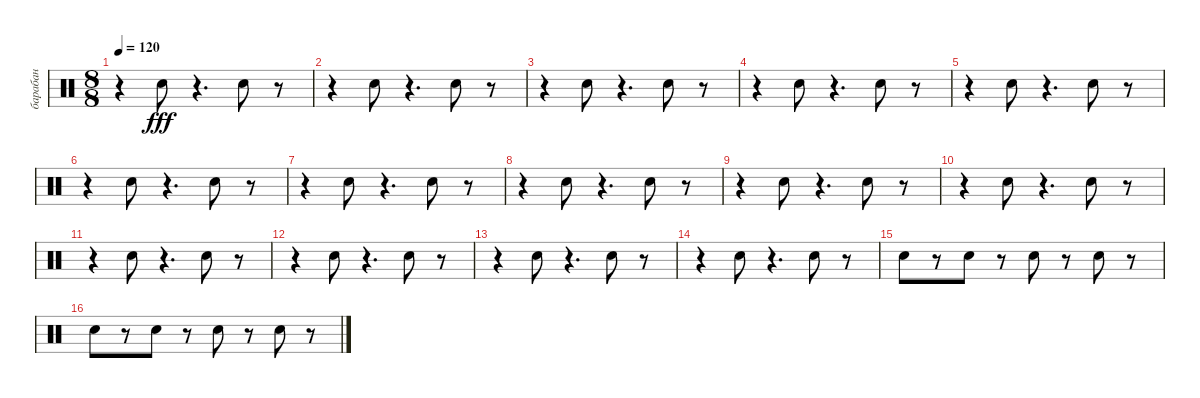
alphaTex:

\track ("барабан" "барабан") {instrument percussion}
\staff {score}
\articulation defaults
\ts (8 8)
\tempo 120
\clef neutral
\ks c
r.4{dy fff} "Snare (hit) 2".8 r.4{d} "Snare (hit) 2".8 r.8 |
r.4 "Snare (hit) 2".8 r.4{d} "Snare (hit) 2".8 r.8 |
r.4 "Snare (hit) 2".8 r.4{d} "Snare (hit) 2".8 r.8 |
r.4 "Snare (hit) 2".8 r.4{d} "Snare (hit) 2".8 r.8 |
r.4 "Snare (hit) 2".8 r.4{d} "Snare (hit) 2".8 r.8 |
r.4 "Snare (hit) 2".8 r.4{d} "Snare (hit) 2".8 r.8 |
r.4 "Snare (hit) 2".8 r.4{d} "Snare (hit) 2".8 r.8 |
r.4 "Snare (hit) 2".8 r.4{d} "Snare (hit) 2".8 r.8 |
r.4 "Snare (hit) 2".8 r.4{d} "Snare (hit) 2".8 r.8 |
r.4 "Snare (hit) 2".8 r.4{d} "Snare (hit) 2".8 r.8 |
r.4 "Snare (hit) 2".8 r.4{d} "Snare (hit) 2".8 r.8 |
r.4 "Snare (hit) 2".8 r.4{d} "Snare (hit) 2".8 r.8 |
r.4 "Snare (hit) 2".8 r.4{d} "Snare (hit) 2".8 r.8 |
r.4 "Snare (hit) 2".8 r.4{d} "Snare (hit) 2".8 r.8 |
"Snare (hit) 2".8 r.8 "Snare (hit) 2".8 r.8 "Snare (hit) 2".8 r.8 "Snare (hit) 2".8 r.8 |
"Snare (hit) 2".8 r.8 "Snare (hit) 2".8 r.8 "Snare (hit) 2".8 r.8 "Snare (hit) 2".8 r.8
